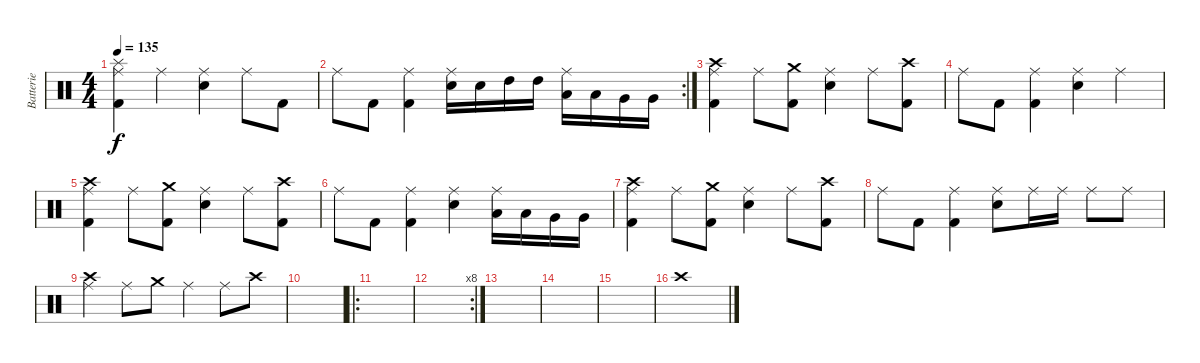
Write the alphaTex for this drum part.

\track ("Batterie" "Batterie") {instrument percussion}
\staff {score}
\articulation defaults
\ts (4 4)
\tempo 135
\clef neutral
\ks c
("Splash (hit)" "Ride (middle)" "Kick (hit) 2").4{dy f} "Ride (middle)".4 ("Ride (middle)" "Snare (hit) 2").4 "Ride (middle)".8 "Kick (hit) 2".8 |
\rc 2 "Ride (middle)".8 "Kick (hit) 2".8
("Ride (middle)" "Kick (hit) 2").4 ("Ride (middle)" "Snare (hit) 2").16 "Snare (hit) 2".16 "High Tom (hit)".16 "High Tom (hit)".16 ("Ride (middle)" "Low Tom (hit)").16 "Low Tom (hit)".16 "Very Low Tom (hit)".16 "Very Low Tom (hit)".16 |
("Crash high (hit)" "Ride (middle)" "Kick (hit) 2").4 "Ride (middle)".8 ("Crash medium (hit)" "Kick (hit) 2").8 ("Ride (middle)" "Snare (hit) 2").4 "Ride (middle)".8 ("Crash high (hit)" "Kick (hit) 2").8 |
"Ride (middle)".8 "Kick (hit) 2".8 ("Ride (middle)" "Kick (hit) 2").4 ("Ride (middle)" "Snare (hit) 2").4 "Ride (middle)".4 |
("Crash high (hit)" "Ride (middle)" "Kick (hit) 2").4 "Ride (middle)".8 ("Crash medium (hit)" "Kick (hit) 2").8 ("Ride (middle)" "Snare (hit) 2").4 "Ride (middle)".8 ("Crash high (hit)" "Kick (hit) 2").8 |
"Ride (middle)".8 "Kick (hit) 2".8 ("Ride (middle)" "Kick (hit) 2").4 ("Ride (middle)" "Snare (hit) 2").4 ("Ride (middle)" "Low Tom (hit)").16 "Low Tom (hit)".16 "Very Low Tom (hit)".16 "Very Low Tom (hit)".16 |
("Crash high (hit)" "Ride (middle)" "Kick (hit) 2").4 "Ride (middle)".8 ("Crash medium (hit)" "Kick (hit) 2").8 ("Ride (middle)" "Snare (hit) 2").4 "Ride (middle)".8 ("Crash high (hit)" "Kick (hit) 2").8 |
"Ride (middle)".8 "Kick (hit) 2".8 ("Ride (middle)" "Kick (hit) 2").4 ("Ride (middle)" "Snare (hit) 2").8 "Ride (middle)".16 "Ride (middle)".16 "Ride (middle)".8 "Ride (middle)".8 |
("Crash high (hit)" "Ride (middle)").4 "Ride (middle)".8 "Crash medium (hit)".8 "Ride (middle)".4 "Ride (middle)".8 "Crash high (hit)".8 |
|
\ro
|
\rc 8
|
|
|
|
"Crash high (hit)".1{volume 16}
